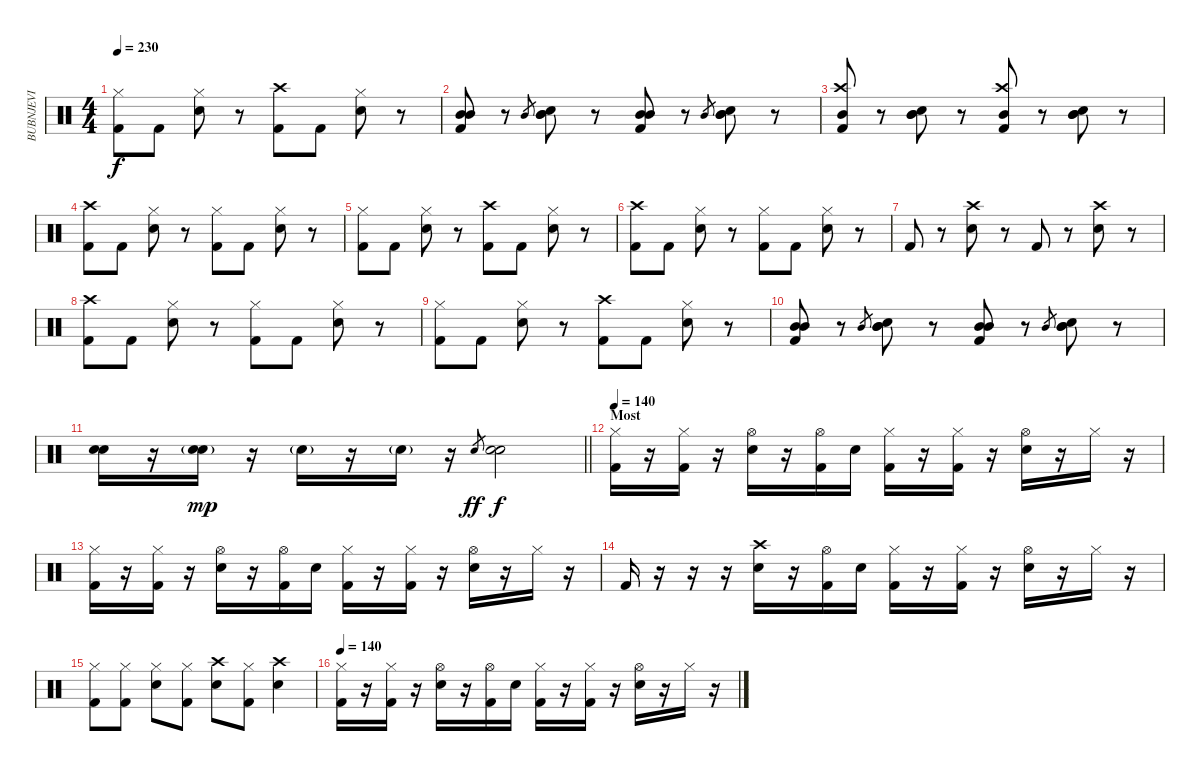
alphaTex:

\track ("BUBNJEVI" "BUBNJEVI") {instrument percussion}
\staff {score}
\articulation defaults
\ts (4 4)
\tempo 230
\clef neutral
\ks c
("Hi-Hat (closed)" "Kick (hit) 2").8{dy f} "Kick (hit) 2".8 ("Hi-Hat (closed)" "Snare (hit) 2").8 r.8 ("Crash high (hit)" "Kick (hit) 2").8 "Kick (hit) 2".8 ("Hi-Hat (closed)" "Snare (hit) 2").8 r.8 |
("Mid Tom (hit)" "Mid Tom (hit)" "Kick (hit) 2").8 r.8 "Mid Tom (hit)".8{gr} ("Mid Tom (hit)" "Mid Tom (hit)" "Snare (hit) 2").8 r.8 ("Mid Tom (hit)" "Mid Tom (hit)" "Kick (hit) 2").8 r.8 "Mid Tom (hit)".8{gr} ("Mid Tom (hit)" "Mid Tom (hit)" "Snare (hit) 2").8 r.8 |
("Crash high (hit)" "Mid Tom (hit)" "Kick (hit) 2").8 r.8 ("Mid Tom (hit)" "Mid Tom (hit)" "Snare (hit) 2").8 r.8 ("Crash high (hit)" "Mid Tom (hit)" "Kick (hit) 2").8 r.8 ("Mid Tom (hit)" "Mid Tom (hit)" "Snare (hit) 2").8 r.8 |
("Crash high (hit)" "Kick (hit) 2").8 "Kick (hit) 2".8 ("Hi-Hat (closed)" "Snare (hit) 2").8 r.8 ("Hi-Hat (closed)" "Kick (hit) 2").8 "Kick (hit) 2".8 ("Hi-Hat (closed)" "Snare (hit) 2").8 r.8 |
("Hi-Hat (closed)" "Kick (hit) 2").8 "Kick (hit) 2".8 ("Hi-Hat (closed)" "Snare (hit) 2").8 r.8 ("Crash high (hit)" "Kick (hit) 2").8 "Kick (hit) 2".8 ("Hi-Hat (closed)" "Snare (hit) 2").8 r.8 |
("Crash high (hit)" "Kick (hit) 2").8 "Kick (hit) 2".8 ("Hi-Hat (closed)" "Snare (hit) 2").8 r.8 ("Hi-Hat (closed)" "Kick (hit) 2").8 "Kick (hit) 2".8 ("Hi-Hat (closed)" "Snare (hit) 2").8 r.8 |
"Kick (hit) 2".8 r.8 ("Crash high (hit)" "Snare (hit) 2").8 r.8 "Kick (hit) 2".8 r.8 ("Crash high (hit)" "Snare (hit) 2").8 r.8 |
("Crash high (hit)" "Kick (hit) 2").8 "Kick (hit) 2".8 ("Hi-Hat (closed)" "Snare (hit) 2").8 r.8 ("Hi-Hat (closed)" "Kick (hit) 2").8 "Kick (hit) 2".8 ("Hi-Hat (closed)" "Snare (hit) 2").8 r.8 |
("Hi-Hat (closed)" "Kick (hit) 2").8 "Kick (hit) 2".8 ("Hi-Hat (closed)" "Snare (hit) 2").8 r.8 ("Crash high (hit)" "Kick (hit) 2").8 "Kick (hit) 2".8 ("Hi-Hat (closed)" "Snare (hit) 2").8 r.8 |
("Mid Tom (hit)" "Mid Tom (hit)" "Kick (hit) 2").8 r.8 "Mid Tom (hit)".8{gr} ("Mid Tom (hit)" "Mid Tom (hit)" "Snare (hit) 2").8 r.8 ("Mid Tom (hit)" "Mid Tom (hit)" "Kick (hit) 2").8 r.8 "Mid Tom (hit)".8{gr} ("Mid Tom (hit)" "Mid Tom (hit)" "Snare (hit) 2").8 r.8 |
\barLineRight lightlight
("Snare (hit) 2" "Snare (hit) 2").16 r.16 ("Snare (hit) 2"{g} "Snare (hit) 2"{g}).16{dy mp} r.16 "Snare (hit) 2"{g}.16 r.16 "Snare (hit) 2"{g}.16 r.16 "Snare (hit) 2".8{gr dy ff} ("Snare (hit) 2" "Snare (hit) 2").2{dy f} |
\section ("" "Most")
\tempo 140
("Hi-Hat (closed)" "Kick (hit) 2").16 r.16 ("Hi-Hat (closed)" "Kick (hit) 2").16 r.16 ("Hi-Hat (open)" "Snare (hit) 2").16 r.16 ("Hi-Hat (open)" "Kick (hit) 2").16 "Snare (hit) 2".16 ("Hi-Hat (closed)" "Kick (hit) 2").16 r.16 ("Hi-Hat (closed)" "Kick (hit) 2").16 r.16 ("Hi-Hat (open)" "Snare (hit) 2").16 r.16 "Hi-Hat (closed)".16 r.16 |
("Hi-Hat (closed)" "Kick (hit) 2").16 r.16 ("Hi-Hat (closed)" "Kick (hit) 2").16 r.16 ("Hi-Hat (open)" "Snare (hit) 2").16 r.16 ("Hi-Hat (open)" "Kick (hit) 2").16 "Snare (hit) 2".16 ("Hi-Hat (closed)" "Kick (hit) 2").16 r.16 ("Hi-Hat (closed)" "Kick (hit) 2").16 r.16 ("Hi-Hat (open)" "Snare (hit) 2").16 r.16 "Hi-Hat (closed)".16 r.16 |
"Kick (hit) 2".16 r.16 r.16 r.16 ("Crash high (hit)" "Snare (hit) 2").16 r.16 ("Hi-Hat (open)" "Kick (hit) 2").16 "Snare (hit) 2".16 ("Hi-Hat (closed)" "Kick (hit) 2").16 r.16 ("Hi-Hat (closed)" "Kick (hit) 2").16 r.16 ("Hi-Hat (open)" "Snare (hit) 2").16 r.16 "Hi-Hat (closed)".16 r.16 |
("Hi-Hat (closed)" "Kick (hit) 2").8 ("Hi-Hat (closed)" "Kick (hit) 2").8 ("Hi-Hat (closed)" "Snare (hit) 2").8 ("Hi-Hat (closed)" "Kick (hit) 2").8 ("Crash high (hit)" "Snare (hit) 2").8 ("Hi-Hat (closed)" "Kick (hit) 2").8 ("Crash high (hit)" "Snare (hit) 2").4 |
\tempo 140
("Hi-Hat (closed)" "Kick (hit) 2").16 r.16 ("Hi-Hat (closed)" "Kick (hit) 2").16 r.16 ("Hi-Hat (open)" "Snare (hit) 2").16 r.16 ("Hi-Hat (open)" "Kick (hit) 2").16 "Snare (hit) 2".16 ("Hi-Hat (closed)" "Kick (hit) 2").16 r.16 ("Hi-Hat (closed)" "Kick (hit) 2").16 r.16 ("Hi-Hat (open)" "Snare (hit) 2").16 r.16 "Hi-Hat (closed)".16 r.16
